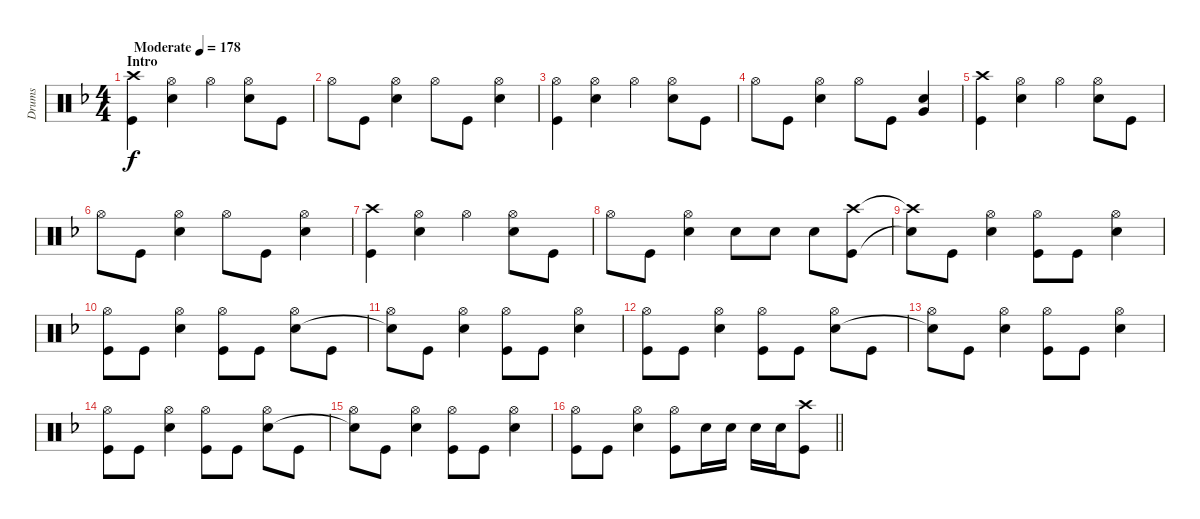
\track ("Drums" "Drums") {instrument percussion}
\staff {score}
\articulation defaults
\ts (4 4)
\section ("" "Intro")
\tempo (178 "Moderate")
\clef neutral
\ks f
("Crash high (hit)" "Kick (hit)").4{dy f} ("Hi-Hat (open)" "Electric Snare (hit)").4 "Hi-Hat (open)".4 ("Hi-Hat (open)" "Electric Snare (hit)").8 "Kick (hit)".8 |
"Hi-Hat (open)".8 "Kick (hit)".8 ("Hi-Hat (open)" "Electric Snare (hit)").4 "Hi-Hat (open)".8 "Kick (hit)".8 ("Hi-Hat (open)" "Electric Snare (hit)").4 |
("Hi-Hat (open)" "Kick (hit)").4 ("Hi-Hat (open)" "Electric Snare (hit)").4 "Hi-Hat (open)".4 ("Hi-Hat (open)" "Electric Snare (hit)").8 "Kick (hit)".8 |
"Hi-Hat (open)".8 "Kick (hit)".8 ("Hi-Hat (open)" "Electric Snare (hit)").4 "Hi-Hat (open)".8 "Kick (hit)".8 ("Very Low Tom (hit)" "Electric Snare (hit)").4 |
("Crash high (hit)" "Kick (hit)").4 ("Hi-Hat (open)" "Electric Snare (hit)").4 "Hi-Hat (open)".4 ("Hi-Hat (open)" "Electric Snare (hit)").8 "Kick (hit)".8 |
"Hi-Hat (open)".8 "Kick (hit)".8 ("Hi-Hat (open)" "Electric Snare (hit)").4 "Hi-Hat (open)".8 "Kick (hit)".8 ("Hi-Hat (open)" "Electric Snare (hit)").4 |
("Crash high (hit)" "Kick (hit)").4 ("Hi-Hat (open)" "Electric Snare (hit)").4 "Hi-Hat (open)".4 ("Hi-Hat (open)" "Electric Snare (hit)").8 "Kick (hit)".8 |
"Hi-Hat (open)".8 "Kick (hit)".8 ("Hi-Hat (open)" "Electric Snare (hit)").4 "Electric Snare (hit)".8 "Electric Snare (hit)".8 "Electric Snare (hit)".8 ("Crash high (hit)" "Kick (hit)").8 |
("Crash high (hit)"{t} "Snare (hit)"{t}).8 "Kick (hit)".8 ("Hi-Hat (open)" "Electric Snare (hit)").4 ("Hi-Hat (open)" "Kick (hit)").8 "Kick (hit)".8 ("Hi-Hat (open)" "Electric Snare (hit)").4 |
("Hi-Hat (open)" "Kick (hit)").8 "Kick (hit)".8 ("Hi-Hat (open)" "Electric Snare (hit)").4 ("Hi-Hat (open)" "Kick (hit)").8 "Kick (hit)".8 ("Hi-Hat (open)" "Electric Snare (hit)").8 "Kick (hit)".8 |
("Hi-Hat (open)" "Snare (hit)"{t}).8 "Kick (hit)".8 ("Hi-Hat (open)" "Electric Snare (hit)").4 ("Hi-Hat (open)" "Kick (hit)").8 "Kick (hit)".8 ("Hi-Hat (open)" "Electric Snare (hit)").4 |
("Hi-Hat (open)" "Kick (hit)").8 "Kick (hit)".8 ("Hi-Hat (open)" "Electric Snare (hit)").4 ("Hi-Hat (open)" "Kick (hit)").8 "Kick (hit)".8 ("Hi-Hat (open)" "Electric Snare (hit)").8 "Kick (hit)".8 |
("Hi-Hat (open)" "Snare (hit)"{t}).8 "Kick (hit)".8 ("Hi-Hat (open)" "Electric Snare (hit)").4 ("Hi-Hat (open)" "Kick (hit)").8 "Kick (hit)".8 ("Hi-Hat (open)" "Electric Snare (hit)").4 |
("Hi-Hat (open)" "Kick (hit)").8 "Kick (hit)".8 ("Hi-Hat (open)" "Electric Snare (hit)").4 ("Hi-Hat (open)" "Kick (hit)").8 "Kick (hit)".8 ("Hi-Hat (open)" "Electric Snare (hit)").8 "Kick (hit)".8 |
("Hi-Hat (open)" "Snare (hit)"{t}).8 "Kick (hit)".8 ("Hi-Hat (open)" "Electric Snare (hit)").4 ("Hi-Hat (open)" "Kick (hit)").8 "Kick (hit)".8 ("Hi-Hat (open)" "Electric Snare (hit)").4 |
\barLineRight lightlight
("Hi-Hat (open)" "Kick (hit)").8 "Kick (hit)".8 ("Hi-Hat (open)" "Electric Snare (hit)").4 ("Hi-Hat (open)" "Kick (hit)").8 "Electric Snare (hit)".16 "Electric Snare (hit)".16 "Electric Snare (hit)".16 "Electric Snare (hit)".16 ("Crash high (hit)" "Kick (hit)").8
